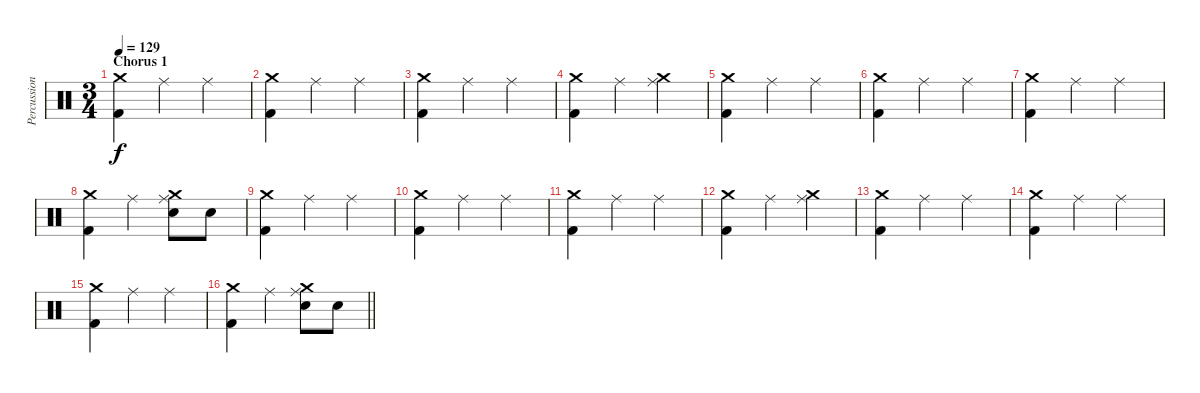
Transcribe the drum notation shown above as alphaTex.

\track ("Percussion" "Percussion") {instrument percussion}
\staff {score}
\articulation defaults
\ts (3 4)
\section ("" "Chorus 1")
\tempo 129
\clef neutral
\ks c
("Crash medium (hit)" "Kick (hit) 2").4{dy f} "Ride (middle)".4 "Ride (middle)".4 |
("Crash medium (hit)" "Kick (hit) 2").4 "Ride (middle)".4 "Ride (middle)".4 |
("Crash medium (hit)" "Kick (hit) 2").4 "Ride (middle)".4 "Ride (middle)".4 |
("Crash medium (hit)" "Kick (hit) 2").4 "Ride (middle)".4 ("Crash medium (hit)" "Ride (middle)").4 |
("Crash medium (hit)" "Kick (hit) 2").4 "Ride (middle)".4 "Ride (middle)".4 |
("Crash medium (hit)" "Kick (hit) 2").4 "Ride (middle)".4 "Ride (middle)".4 |
("Crash medium (hit)" "Kick (hit) 2").4 "Ride (middle)".4 "Ride (middle)".4 |
("Crash medium (hit)" "Kick (hit) 2").4 "Ride (middle)".4 ("Crash medium (hit)" "Ride (middle)" "Electric Snare (hit)").8 "Electric Snare (hit)".8 |
("Crash medium (hit)" "Kick (hit) 2").4 "Ride (middle)".4 "Ride (middle)".4 |
("Crash medium (hit)" "Kick (hit) 2").4 "Ride (middle)".4 "Ride (middle)".4 |
("Crash medium (hit)" "Kick (hit) 2").4 "Ride (middle)".4 "Ride (middle)".4 |
("Crash medium (hit)" "Kick (hit) 2").4 "Ride (middle)".4 ("Crash medium (hit)" "Ride (middle)").4 |
("Crash medium (hit)" "Kick (hit) 2").4 "Ride (middle)".4 "Ride (middle)".4 |
("Crash medium (hit)" "Kick (hit) 2").4 "Ride (middle)".4 "Ride (middle)".4 |
("Crash medium (hit)" "Kick (hit) 2").4 "Ride (middle)".4 "Ride (middle)".4 |
\barLineRight lightlight
("Crash medium (hit)" "Kick (hit) 2").4 "Ride (middle)".4 ("Crash medium (hit)" "Ride (middle)" "Electric Snare (hit)").8 "Electric Snare (hit)".8
